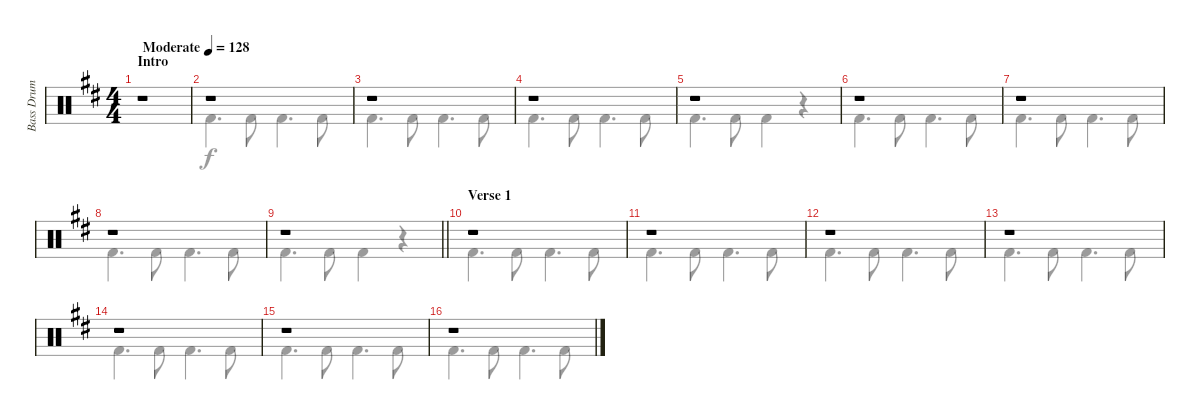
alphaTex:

\track ("Bass Drum" "Bass Drum") {instrument percussion}
\staff {score}
\articulation defaults
\voice
\ts (4 4)
\section ("" "Intro")
\tempo (128 "Moderate")
\clef neutral
\ks bminor
r.1{dy f} |
r.1 |
r.1 |
r.1 |
r.1 |
r.1 |
r.1 |
r.1 |
\barLineRight lightlight
r.1 |
\section ("" "Verse 1")
r.1 |
r.1 |
r.1 |
r.1 |
r.1 |
r.1 |
r.1
\voice
\clef neutral
\ottava regular
\simile none
\ks bminor
|
"Kick (hit) 2".4{d} "Kick (hit) 2".8 "Kick (hit) 2".4{d} "Kick (hit) 2".8 |
"Kick (hit) 2".4{d} "Kick (hit) 2".8 "Kick (hit) 2".4{d} "Kick (hit) 2".8 |
"Kick (hit) 2".4{d} "Kick (hit) 2".8 "Kick (hit) 2".4{d} "Kick (hit) 2".8 |
"Kick (hit) 2".4{d} "Kick (hit) 2".8 "Kick (hit) 2".4 r.4 |
"Kick (hit) 2".4{d} "Kick (hit) 2".8 "Kick (hit) 2".4{d} "Kick (hit) 2".8 |
"Kick (hit) 2".4{d} "Kick (hit) 2".8 "Kick (hit) 2".4{d} "Kick (hit) 2".8 |
"Kick (hit) 2".4{d} "Kick (hit) 2".8 "Kick (hit) 2".4{d} "Kick (hit) 2".8 |
\barLineRight lightlight "Kick (hit) 2".4{d} "Kick (hit) 2".8 "Kick (hit) 2".4
r.4 |
"Kick (hit) 2".4{d} "Kick (hit) 2".8 "Kick (hit) 2".4{d} "Kick (hit) 2".8 |
"Kick (hit) 2".4{d} "Kick (hit) 2".8 "Kick (hit) 2".4{d} "Kick (hit) 2".8 |
"Kick (hit) 2".4{d} "Kick (hit) 2".8 "Kick (hit) 2".4{d} "Kick (hit) 2".8 |
"Kick (hit) 2".4{d} "Kick (hit) 2".8 "Kick (hit) 2".4{d} "Kick (hit) 2".8 |
"Kick (hit) 2".4{d} "Kick (hit) 2".8 "Kick (hit) 2".4{d} "Kick (hit) 2".8 |
"Kick (hit) 2".4{d} "Kick (hit) 2".8 "Kick (hit) 2".4{d} "Kick (hit) 2".8 |
"Kick (hit) 2".4{d} "Kick (hit) 2".8 "Kick (hit) 2".4{d} "Kick (hit) 2".8
